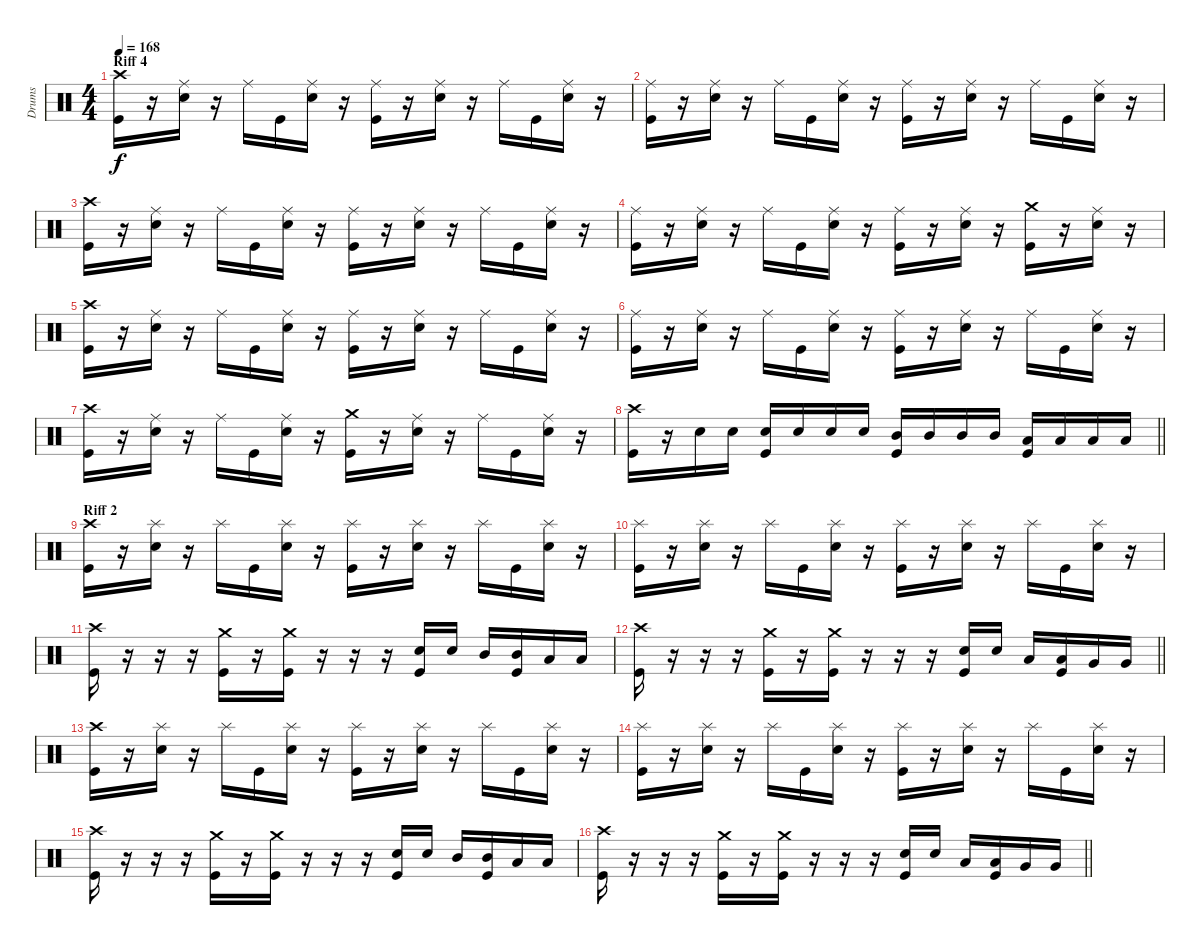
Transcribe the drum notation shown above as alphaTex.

\track ("Drums" "Drums") {instrument percussion}
\staff {score}
\articulation defaults
\ts (4 4)
\section ("" "Riff 4")
\tempo 168
\clef neutral
\ks c
("Crash high (hit)" "Kick (hit)").16{dy f} r.16 ("Ride (middle)" "Electric Snare (hit)").16 r.16 "Ride (middle)".16 "Kick (hit)".16 ("Ride (middle)" "Electric Snare (hit)").16 r.16 ("Ride (middle)" "Kick (hit)").16 r.16 ("Ride (middle)" "Electric Snare (hit)").16 r.16 "Ride (middle)".16 "Kick (hit)".16 ("Ride (middle)" "Electric Snare (hit)").16 r.16 |
("Ride (middle)" "Kick (hit)").16 r.16 ("Ride (middle)" "Electric Snare (hit)").16 r.16 "Ride (middle)".16 "Kick (hit)".16 ("Ride (middle)" "Electric Snare (hit)").16 r.16 ("Ride (middle)" "Kick (hit)").16 r.16 ("Ride (middle)" "Electric Snare (hit)").16 r.16 "Ride (middle)".16 "Kick (hit)".16 ("Ride (middle)" "Electric Snare (hit)").16 r.16 |
("Crash high (hit)" "Kick (hit)").16 r.16 ("Ride (middle)" "Electric Snare (hit)").16 r.16 "Ride (middle)".16 "Kick (hit)".16 ("Ride (middle)" "Electric Snare (hit)").16 r.16 ("Ride (middle)" "Kick (hit)").16 r.16 ("Ride (middle)" "Electric Snare (hit)").16 r.16 "Ride (middle)".16 "Kick (hit)".16 ("Ride (middle)" "Electric Snare (hit)").16 r.16 |
("Ride (middle)" "Kick (hit)").16 r.16 ("Ride (middle)" "Electric Snare (hit)").16 r.16 "Ride (middle)".16 "Kick (hit)".16 ("Ride (middle)" "Electric Snare (hit)").16 r.16 ("Ride (middle)" "Kick (hit)").16 r.16 ("Ride (middle)" "Electric Snare (hit)").16 r.16 ("Crash medium (hit)" "Kick (hit)").16 r.16 ("Ride (middle)" "Electric Snare (hit)").16 r.16 |
("Crash high (hit)" "Kick (hit)").16 r.16 ("Ride (middle)" "Electric Snare (hit)").16 r.16 "Ride (middle)".16 "Kick (hit)".16 ("Ride (middle)" "Electric Snare (hit)").16 r.16 ("Ride (middle)" "Kick (hit)").16 r.16 ("Ride (middle)" "Electric Snare (hit)").16 r.16 "Ride (middle)".16 "Kick (hit)".16 ("Ride (middle)" "Electric Snare (hit)").16 r.16 |
("Ride (middle)" "Kick (hit)").16 r.16 ("Ride (middle)" "Electric Snare (hit)").16 r.16 "Ride (middle)".16 "Kick (hit)".16 ("Ride (middle)" "Electric Snare (hit)").16 r.16 ("Ride (middle)" "Kick (hit)").16 r.16 ("Ride (middle)" "Electric Snare (hit)").16 r.16 "Ride (middle)".16 "Kick (hit)".16 ("Ride (middle)" "Electric Snare (hit)").16 r.16 |
("Crash high (hit)" "Kick (hit)").16 r.16 ("Ride (middle)" "Electric Snare (hit)").16 r.16 "Ride (middle)".16 "Kick (hit)".16 ("Ride (middle)" "Electric Snare (hit)").16 r.16 ("Crash medium (hit)" "Kick (hit)").16 r.16 ("Ride (middle)" "Electric Snare (hit)").16 r.16 "Ride (middle)".16 "Kick (hit)".16 ("Ride (middle)" "Electric Snare (hit)").16 r.16 |
\barLineRight lightlight
("Crash high (hit)" "Kick (hit)").16 r.16 "Electric Snare (hit)".16 "Electric Snare (hit)".16 ("Electric Snare (hit)" "Kick (hit)").16 "Electric Snare (hit)".16 "Electric Snare (hit)".16 "Electric Snare (hit)".16 ("Mid Tom (hit)" "Kick (hit)").16 "Mid Tom (hit)".16 "Mid Tom (hit)".16 "Mid Tom (hit)".16 ("Low Tom (hit)" "Kick (hit)").16 "Low Tom (hit)".16 "Low Tom (hit)".16 "Low Tom (hit)".16 |
\section ("" "Riff 2")
("Crash high (hit)" "Kick (hit)").16 r.16 ("Splash (hit)" "Electric Snare (hit)").16 r.16 "Splash (hit)".16 "Kick (hit)".16 ("Splash (hit)" "Electric Snare (hit)").16 r.16 ("Splash (hit)" "Kick (hit)").16 r.16 ("Splash (hit)" "Electric Snare (hit)").16 r.16 "Splash (hit)".16 "Kick (hit)".16 ("Splash (hit)" "Electric Snare (hit)").16 r.16 |
("Splash (hit)" "Kick (hit)").16 r.16 ("Splash (hit)" "Electric Snare (hit)").16 r.16 "Splash (hit)".16 "Kick (hit)".16 ("Splash (hit)" "Electric Snare (hit)").16 r.16 ("Splash (hit)" "Kick (hit)").16 r.16 ("Splash (hit)" "Electric Snare (hit)").16 r.16 "Splash (hit)".16 "Kick (hit)".16 ("Splash (hit)" "Electric Snare (hit)").16 r.16 |
("Crash high (hit)" "Kick (hit)").16 r.16 r.16 r.16 ("Crash medium (hit)" "Kick (hit)").16 r.16 ("Crash medium (hit)" "Kick (hit)").16 r.16 r.16 r.16 ("Electric Snare (hit)" "Kick (hit)").16 "Electric Snare (hit)".16 "Mid Tom (hit)".16 ("Mid Tom (hit)" "Kick (hit)").16 "Low Tom (hit)".16 "Low Tom (hit)".16 |
\barLineRight lightlight
("Crash high (hit)" "Kick (hit)").16 r.16 r.16 r.16 ("Crash medium (hit)" "Kick (hit)").16 r.16 ("Crash medium (hit)" "Kick (hit)").16 r.16 r.16 r.16 ("Electric Snare (hit)" "Kick (hit)").16 "Electric Snare (hit)".16 "Low Tom (hit)".16 ("Low Tom (hit)" "Kick (hit)").16 "Very Low Tom (hit)".16 "Very Low Tom (hit)".16 |
("Crash high (hit)" "Kick (hit)").16 r.16 ("Splash (hit)" "Electric Snare (hit)").16 r.16 "Splash (hit)".16 "Kick (hit)".16 ("Splash (hit)" "Electric Snare (hit)").16 r.16 ("Splash (hit)" "Kick (hit)").16 r.16 ("Splash (hit)" "Electric Snare (hit)").16 r.16 "Splash (hit)".16 "Kick (hit)".16 ("Splash (hit)" "Electric Snare (hit)").16 r.16 |
("Splash (hit)" "Kick (hit)").16 r.16 ("Splash (hit)" "Electric Snare (hit)").16 r.16 "Splash (hit)".16 "Kick (hit)".16 ("Splash (hit)" "Electric Snare (hit)").16 r.16 ("Splash (hit)" "Kick (hit)").16 r.16 ("Splash (hit)" "Electric Snare (hit)").16 r.16 "Splash (hit)".16 "Kick (hit)".16 ("Splash (hit)" "Electric Snare (hit)").16 r.16 |
("Crash high (hit)" "Kick (hit)").16 r.16 r.16 r.16 ("Crash medium (hit)" "Kick (hit)").16 r.16 ("Crash medium (hit)" "Kick (hit)").16 r.16 r.16 r.16 ("Electric Snare (hit)" "Kick (hit)").16 "Electric Snare (hit)".16 "Mid Tom (hit)".16 ("Mid Tom (hit)" "Kick (hit)").16 "Low Tom (hit)".16 "Low Tom (hit)".16 |
\barLineRight lightlight
("Crash high (hit)" "Kick (hit)").16 r.16 r.16 r.16 ("Crash medium (hit)" "Kick (hit)").16 r.16 ("Crash medium (hit)" "Kick (hit)").16 r.16 r.16 r.16 ("Electric Snare (hit)" "Kick (hit)").16 "Electric Snare (hit)".16 "Low Tom (hit)".16 ("Low Tom (hit)" "Kick (hit)").16 "Very Low Tom (hit)".16 "Very Low Tom (hit)".16
